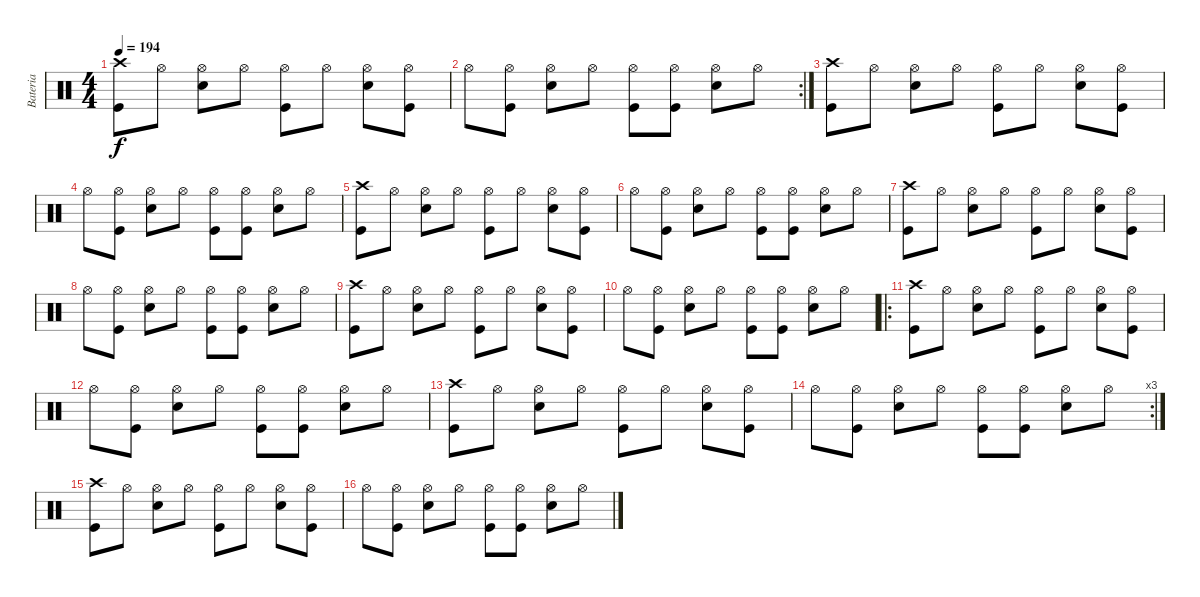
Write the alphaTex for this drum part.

\track ("Bateria" "Bateria") {instrument percussion}
\staff {score}
\articulation defaults
\ts (4 4)
\tempo 194
\clef neutral
\ks c
("Crash high (hit)" "Kick (hit)").8{dy f} "Hi-Hat (open)".8 ("Electric Snare (hit)" "Hi-Hat (open)").8 "Hi-Hat (open)".8 ("Hi-Hat (open)" "Kick (hit)").8 "Hi-Hat (open)".8 ("Electric Snare (hit)" "Hi-Hat (open)").8 ("Hi-Hat (open)" "Kick (hit)").8 |
\rc 2 "Hi-Hat (open)".8
("Hi-Hat (open)" "Kick (hit)").8 ("Electric Snare (hit)" "Hi-Hat (open)").8 "Hi-Hat (open)".8 ("Hi-Hat (open)" "Kick (hit)").8 ("Hi-Hat (open)" "Kick (hit)").8 ("Electric Snare (hit)" "Hi-Hat (open)").8 "Hi-Hat (open)".8 |
("Crash high (hit)" "Kick (hit)").8 "Hi-Hat (open)".8 ("Electric Snare (hit)" "Hi-Hat (open)").8 "Hi-Hat (open)".8 ("Hi-Hat (open)" "Kick (hit)").8 "Hi-Hat (open)".8 ("Electric Snare (hit)" "Hi-Hat (open)").8 ("Hi-Hat (open)" "Kick (hit)").8 |
"Hi-Hat (open)".8 ("Hi-Hat (open)" "Kick (hit)").8 ("Electric Snare (hit)" "Hi-Hat (open)").8 "Hi-Hat (open)".8 ("Hi-Hat (open)" "Kick (hit)").8 ("Hi-Hat (open)" "Kick (hit)").8 ("Electric Snare (hit)" "Hi-Hat (open)").8 "Hi-Hat (open)".8 |
("Crash high (hit)" "Kick (hit)").8 "Hi-Hat (open)".8 ("Electric Snare (hit)" "Hi-Hat (open)").8 "Hi-Hat (open)".8 ("Hi-Hat (open)" "Kick (hit)").8 "Hi-Hat (open)".8 ("Electric Snare (hit)" "Hi-Hat (open)").8 ("Hi-Hat (open)" "Kick (hit)").8 |
"Hi-Hat (open)".8 ("Hi-Hat (open)" "Kick (hit)").8 ("Electric Snare (hit)" "Hi-Hat (open)").8 "Hi-Hat (open)".8 ("Hi-Hat (open)" "Kick (hit)").8 ("Hi-Hat (open)" "Kick (hit)").8 ("Electric Snare (hit)" "Hi-Hat (open)").8 "Hi-Hat (open)".8 |
("Crash high (hit)" "Kick (hit)").8 "Hi-Hat (open)".8 ("Electric Snare (hit)" "Hi-Hat (open)").8 "Hi-Hat (open)".8 ("Hi-Hat (open)" "Kick (hit)").8 "Hi-Hat (open)".8 ("Electric Snare (hit)" "Hi-Hat (open)").8 ("Hi-Hat (open)" "Kick (hit)").8 |
"Hi-Hat (open)".8 ("Hi-Hat (open)" "Kick (hit)").8 ("Electric Snare (hit)" "Hi-Hat (open)").8 "Hi-Hat (open)".8 ("Hi-Hat (open)" "Kick (hit)").8 ("Hi-Hat (open)" "Kick (hit)").8 ("Electric Snare (hit)" "Hi-Hat (open)").8 "Hi-Hat (open)".8 |
("Crash high (hit)" "Kick (hit)").8 "Hi-Hat (open)".8 ("Electric Snare (hit)" "Hi-Hat (open)").8 "Hi-Hat (open)".8 ("Hi-Hat (open)" "Kick (hit)").8 "Hi-Hat (open)".8 ("Electric Snare (hit)" "Hi-Hat (open)").8 ("Hi-Hat (open)" "Kick (hit)").8 |
"Hi-Hat (open)".8 ("Hi-Hat (open)" "Kick (hit)").8 ("Electric Snare (hit)" "Hi-Hat (open)").8 "Hi-Hat (open)".8 ("Hi-Hat (open)" "Kick (hit)").8 ("Hi-Hat (open)" "Kick (hit)").8 ("Electric Snare (hit)" "Hi-Hat (open)").8 "Hi-Hat (open)".8 |
\ro
("Crash high (hit)" "Kick (hit)").8 "Hi-Hat (open)".8 ("Electric Snare (hit)" "Hi-Hat (open)").8 "Hi-Hat (open)".8 ("Hi-Hat (open)" "Kick (hit)").8 "Hi-Hat (open)".8 ("Electric Snare (hit)" "Hi-Hat (open)").8 ("Hi-Hat (open)" "Kick (hit)").8 |
"Hi-Hat (open)".8 ("Hi-Hat (open)" "Kick (hit)").8 ("Electric Snare (hit)" "Hi-Hat (open)").8 "Hi-Hat (open)".8 ("Hi-Hat (open)" "Kick (hit)").8 ("Hi-Hat (open)" "Kick (hit)").8 ("Electric Snare (hit)" "Hi-Hat (open)").8 "Hi-Hat (open)".8 |
("Crash high (hit)" "Kick (hit)").8 "Hi-Hat (open)".8 ("Electric Snare (hit)" "Hi-Hat (open)").8 "Hi-Hat (open)".8 ("Hi-Hat (open)" "Kick (hit)").8 "Hi-Hat (open)".8 ("Electric Snare (hit)" "Hi-Hat (open)").8 ("Hi-Hat (open)" "Kick (hit)").8 |
\rc 3 "Hi-Hat (open)".8
("Hi-Hat (open)" "Kick (hit)").8 ("Electric Snare (hit)" "Hi-Hat (open)").8 "Hi-Hat (open)".8 ("Hi-Hat (open)" "Kick (hit)").8 ("Hi-Hat (open)" "Kick (hit)").8 ("Electric Snare (hit)" "Hi-Hat (open)").8 "Hi-Hat (open)".8 |
("Crash high (hit)" "Kick (hit)").8 "Hi-Hat (open)".8 ("Electric Snare (hit)" "Hi-Hat (open)").8 "Hi-Hat (open)".8 ("Hi-Hat (open)" "Kick (hit)").8 "Hi-Hat (open)".8 ("Electric Snare (hit)" "Hi-Hat (open)").8 ("Hi-Hat (open)" "Kick (hit)").8 |
"Hi-Hat (open)".8 ("Hi-Hat (open)" "Kick (hit)").8 ("Electric Snare (hit)" "Hi-Hat (open)").8 "Hi-Hat (open)".8 ("Hi-Hat (open)" "Kick (hit)").8 ("Hi-Hat (open)" "Kick (hit)").8 ("Electric Snare (hit)" "Hi-Hat (open)").8 "Hi-Hat (open)".8
